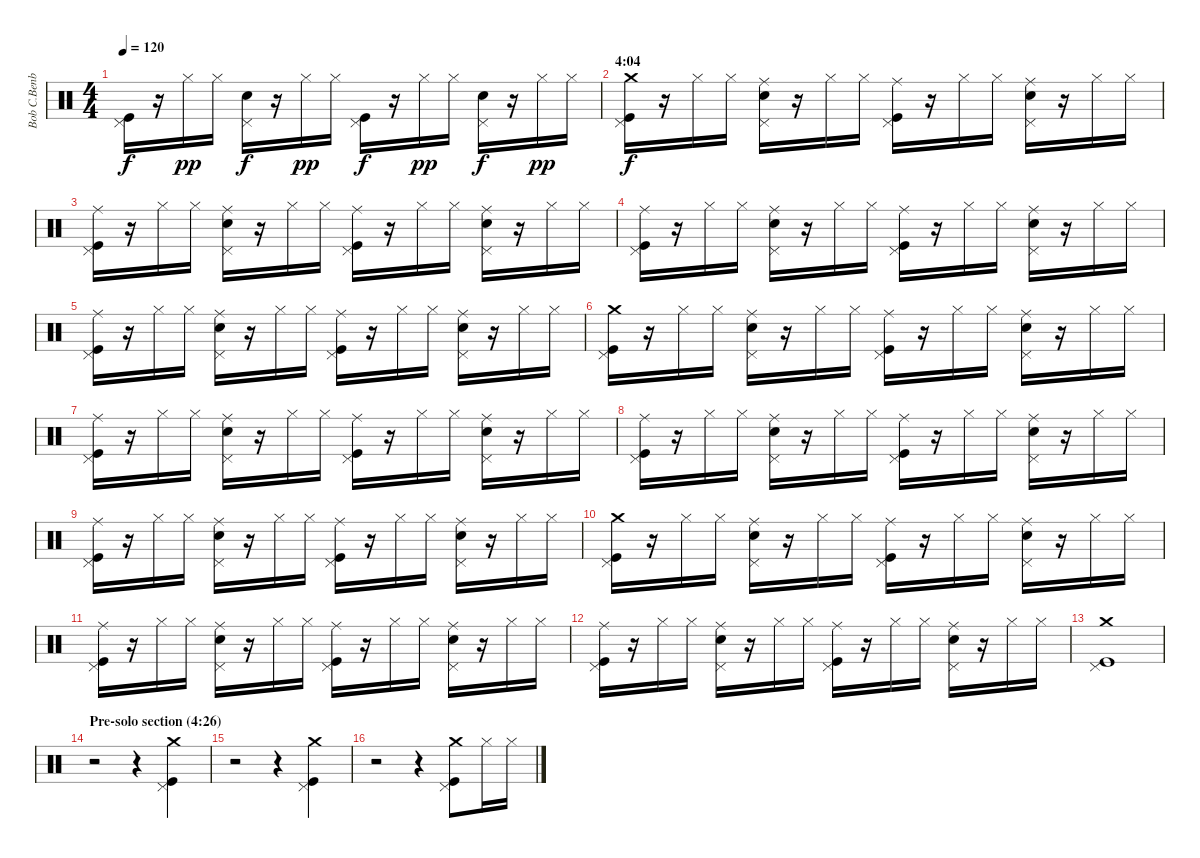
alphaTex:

\track ("Bob C.Benberg (drums)" "Bob C.Benb") {instrument percussion}
\staff {score}
\articulation defaults
\ts (4 4)
\tempo 120
\clef neutral
\ks c
("Pedal Hi-Hat (hit)" "Kick (hit)").16{dy f} r.16 "Hi-Hat (closed)".16{dy pp} "Hi-Hat (closed)".16 ("Pedal Hi-Hat (hit)" "Snare (hit) 2").16{dy f} r.16 "Hi-Hat (closed)".16{dy pp} "Hi-Hat (closed)".16 ("Pedal Hi-Hat (hit)" "Kick (hit)").16{dy f} r.16 "Hi-Hat (closed)".16{dy pp} "Hi-Hat (closed)".16 ("Pedal Hi-Hat (hit)" "Snare (hit) 2").16{dy f} r.16 "Hi-Hat (closed)".16{dy pp} "Hi-Hat (closed)".16 |
\section ("" "4:04")
("Pedal Hi-Hat (hit)" "Kick (hit)" "Crash medium (hit)").16{dy f} r.16 "Hi-Hat (closed)".16 "Hi-Hat (closed)".16 ("Pedal Hi-Hat (hit)" "Snare (hit) 2" "Ride (middle)").16 r.16 "Hi-Hat (closed)".16 "Hi-Hat (closed)".16 ("Pedal Hi-Hat (hit)" "Kick (hit)" "Ride (middle)").16 r.16 "Hi-Hat (closed)".16 "Hi-Hat (closed)".16 ("Pedal Hi-Hat (hit)" "Snare (hit) 2" "Ride (middle)").16 r.16 "Hi-Hat (closed)".16 "Hi-Hat (closed)".16 |
("Pedal Hi-Hat (hit)" "Kick (hit)" "Ride (middle)").16 r.16 "Hi-Hat (closed)".16 "Hi-Hat (closed)".16 ("Pedal Hi-Hat (hit)" "Snare (hit) 2" "Ride (middle)").16 r.16 "Hi-Hat (closed)".16 "Hi-Hat (closed)".16 ("Pedal Hi-Hat (hit)" "Kick (hit)" "Ride (middle)").16 r.16 "Hi-Hat (closed)".16 "Hi-Hat (closed)".16 ("Pedal Hi-Hat (hit)" "Snare (hit) 2" "Ride (middle)").16 r.16 "Hi-Hat (closed)".16 "Hi-Hat (closed)".16 |
("Pedal Hi-Hat (hit)" "Kick (hit)" "Ride (middle)").16 r.16 "Hi-Hat (closed)".16 "Hi-Hat (closed)".16 ("Pedal Hi-Hat (hit)" "Snare (hit) 2" "Ride (middle)").16 r.16 "Hi-Hat (closed)".16 "Hi-Hat (closed)".16 ("Pedal Hi-Hat (hit)" "Kick (hit)" "Ride (middle)").16 r.16 "Hi-Hat (closed)".16 "Hi-Hat (closed)".16 ("Pedal Hi-Hat (hit)" "Snare (hit) 2" "Ride (middle)").16 r.16 "Hi-Hat (closed)".16 "Hi-Hat (closed)".16 |
("Pedal Hi-Hat (hit)" "Kick (hit)" "Ride (middle)").16 r.16 "Hi-Hat (closed)".16 "Hi-Hat (closed)".16 ("Pedal Hi-Hat (hit)" "Snare (hit) 2" "Ride (middle)").16 r.16 "Hi-Hat (closed)".16 "Hi-Hat (closed)".16 ("Pedal Hi-Hat (hit)" "Kick (hit)" "Ride (middle)").16 r.16 "Hi-Hat (closed)".16 "Hi-Hat (closed)".16 ("Pedal Hi-Hat (hit)" "Snare (hit) 2" "Ride (middle)").16 r.16 "Hi-Hat (closed)".16 "Hi-Hat (closed)".16 |
("Pedal Hi-Hat (hit)" "Kick (hit)" "Crash medium (hit)").16 r.16 "Hi-Hat (closed)".16 "Hi-Hat (closed)".16 ("Pedal Hi-Hat (hit)" "Snare (hit) 2" "Ride (middle)").16 r.16 "Hi-Hat (closed)".16 "Hi-Hat (closed)".16 ("Pedal Hi-Hat (hit)" "Kick (hit)" "Ride (middle)").16 r.16 "Hi-Hat (closed)".16 "Hi-Hat (closed)".16 ("Pedal Hi-Hat (hit)" "Snare (hit) 2" "Ride (middle)").16 r.16 "Hi-Hat (closed)".16 "Hi-Hat (closed)".16 |
("Pedal Hi-Hat (hit)" "Kick (hit)" "Ride (middle)").16 r.16 "Hi-Hat (closed)".16 "Hi-Hat (closed)".16 ("Pedal Hi-Hat (hit)" "Snare (hit) 2" "Ride (middle)").16 r.16 "Hi-Hat (closed)".16 "Hi-Hat (closed)".16 ("Pedal Hi-Hat (hit)" "Kick (hit)" "Ride (middle)").16 r.16 "Hi-Hat (closed)".16 "Hi-Hat (closed)".16 ("Pedal Hi-Hat (hit)" "Snare (hit) 2" "Ride (middle)").16 r.16 "Hi-Hat (closed)".16 "Hi-Hat (closed)".16 |
("Pedal Hi-Hat (hit)" "Kick (hit)" "Ride (middle)").16 r.16 "Hi-Hat (closed)".16 "Hi-Hat (closed)".16 ("Pedal Hi-Hat (hit)" "Snare (hit) 2" "Ride (middle)").16 r.16 "Hi-Hat (closed)".16 "Hi-Hat (closed)".16 ("Pedal Hi-Hat (hit)" "Kick (hit)" "Ride (middle)").16 r.16 "Hi-Hat (closed)".16 "Hi-Hat (closed)".16 ("Pedal Hi-Hat (hit)" "Snare (hit) 2" "Ride (middle)").16 r.16 "Hi-Hat (closed)".16 "Hi-Hat (closed)".16 |
("Pedal Hi-Hat (hit)" "Kick (hit)" "Ride (middle)").16 r.16 "Hi-Hat (closed)".16 "Hi-Hat (closed)".16 ("Pedal Hi-Hat (hit)" "Snare (hit) 2" "Ride (middle)").16 r.16 "Hi-Hat (closed)".16 "Hi-Hat (closed)".16 ("Pedal Hi-Hat (hit)" "Kick (hit)" "Ride (middle)").16 r.16 "Hi-Hat (closed)".16 "Hi-Hat (closed)".16 ("Pedal Hi-Hat (hit)" "Snare (hit) 2" "Ride (middle)").16 r.16 "Hi-Hat (closed)".16 "Hi-Hat (closed)".16 |
("Pedal Hi-Hat (hit)" "Kick (hit)" "Crash medium (hit)").16 r.16 "Hi-Hat (closed)".16 "Hi-Hat (closed)".16 ("Pedal Hi-Hat (hit)" "Snare (hit) 2" "Ride (middle)").16 r.16 "Hi-Hat (closed)".16 "Hi-Hat (closed)".16 ("Pedal Hi-Hat (hit)" "Kick (hit)" "Ride (middle)").16 r.16 "Hi-Hat (closed)".16 "Hi-Hat (closed)".16 ("Pedal Hi-Hat (hit)" "Snare (hit) 2" "Ride (middle)").16 r.16 "Hi-Hat (closed)".16 "Hi-Hat (closed)".16 |
("Pedal Hi-Hat (hit)" "Kick (hit)" "Ride (middle)").16 r.16 "Hi-Hat (closed)".16 "Hi-Hat (closed)".16 ("Pedal Hi-Hat (hit)" "Snare (hit) 2" "Ride (middle)").16 r.16 "Hi-Hat (closed)".16 "Hi-Hat (closed)".16 ("Pedal Hi-Hat (hit)" "Kick (hit)" "Ride (middle)").16 r.16 "Hi-Hat (closed)".16 "Hi-Hat (closed)".16 ("Pedal Hi-Hat (hit)" "Snare (hit) 2" "Ride (middle)").16 r.16 "Hi-Hat (closed)".16 "Hi-Hat (closed)".16 |
("Pedal Hi-Hat (hit)" "Kick (hit)" "Ride (middle)").16 r.16 "Hi-Hat (closed)".16 "Hi-Hat (closed)".16 ("Pedal Hi-Hat (hit)" "Snare (hit) 2" "Ride (middle)").16 r.16 "Hi-Hat (closed)".16 "Hi-Hat (closed)".16 ("Pedal Hi-Hat (hit)" "Kick (hit)" "Ride (middle)").16 r.16 "Hi-Hat (closed)".16 "Hi-Hat (closed)".16 ("Pedal Hi-Hat (hit)" "Snare (hit) 2" "Ride (middle)").16 r.16 "Hi-Hat (closed)".16 "Hi-Hat (closed)".16 |
("Pedal Hi-Hat (hit)" "Kick (hit)" "Crash medium (hit)").1 |
\section ("" "Pre-solo section (4:26)")
r.2 r.4 ("Pedal Hi-Hat (hit)" "Kick (hit)" "Crash medium (hit)").4 |
r.2 r.4 ("Pedal Hi-Hat (hit)" "Kick (hit)" "Crash medium (hit)").4 |
r.2 r.4 ("Pedal Hi-Hat (hit)" "Kick (hit)" "Crash medium (hit)").8 "Hi-Hat (closed)".16 "Hi-Hat (closed)".16
